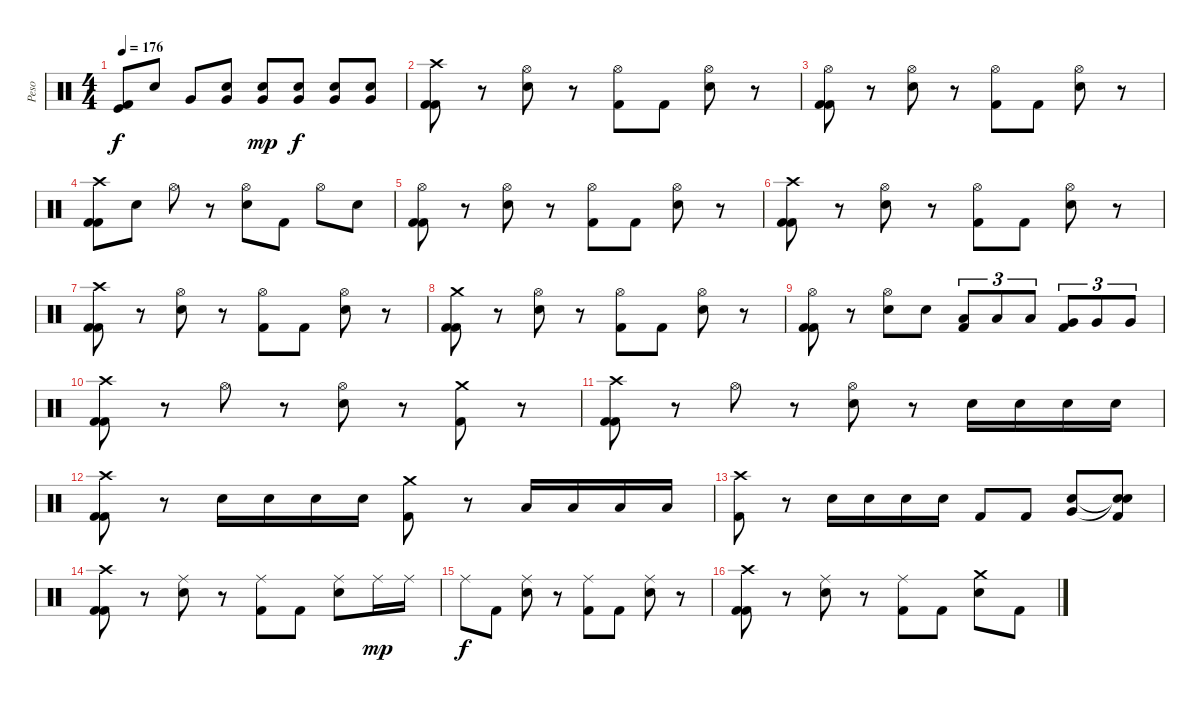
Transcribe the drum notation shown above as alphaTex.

\track ("Peso" "Peso") {instrument percussion}
\staff {score}
\articulation defaults
\ts (4 4)
\tempo 176
\clef neutral
\ks c
("Kick (hit)" "Kick (hit) 2").8{dy f} "Electric Snare (hit)".8 "Very Low Tom (hit)".8 ("Very Low Tom (hit)" "Electric Snare (hit)").8 ("Very Low Tom (hit)" "Electric Snare (hit)").8{dy mp} ("Very Low Tom (hit)" "Electric Snare (hit)").8{dy f} ("Very Low Tom (hit)" "Electric Snare (hit)").8 ("Very Low Tom (hit)" "Electric Snare (hit)").8 |
("Crash high (hit)" "Kick (hit) 2" "Kick (hit) 2").8 r.8 ("Hi-Hat (open)" "Electric Snare (hit)").8 r.8 ("Hi-Hat (open)" "Kick (hit) 2").8 "Kick (hit) 2".8 ("Hi-Hat (open)" "Electric Snare (hit)").8 r.8 |
("Hi-Hat (open)" "Kick (hit) 2" "Kick (hit) 2").8 r.8 ("Hi-Hat (open)" "Electric Snare (hit)").8 r.8 ("Hi-Hat (open)" "Kick (hit) 2").8 "Kick (hit) 2".8 ("Hi-Hat (open)" "Electric Snare (hit)").8 r.8 |
("Crash high (hit)" "Kick (hit) 2" "Kick (hit) 2").8 "Electric Snare (hit)".8 "Hi-Hat (open)".8 r.8 ("Hi-Hat (open)" "Electric Snare (hit)").8 "Kick (hit) 2".8 "Hi-Hat (open)".8 "Electric Snare (hit)".8 |
("Hi-Hat (open)" "Kick (hit) 2" "Kick (hit) 2").8 r.8 ("Hi-Hat (open)" "Electric Snare (hit)").8 r.8 ("Hi-Hat (open)" "Kick (hit) 2").8 "Kick (hit) 2".8 ("Hi-Hat (open)" "Electric Snare (hit)").8 r.8 |
("Crash high (hit)" "Kick (hit) 2" "Kick (hit) 2").8 r.8 ("Hi-Hat (open)" "Electric Snare (hit)").8 r.8 ("Hi-Hat (open)" "Kick (hit) 2").8 "Kick (hit) 2".8 ("Hi-Hat (open)" "Electric Snare (hit)").8 r.8 |
("Crash high (hit)" "Kick (hit) 2" "Kick (hit) 2").8 r.8 ("Hi-Hat (open)" "Electric Snare (hit)").8 r.8 ("Hi-Hat (open)" "Kick (hit) 2").8 "Kick (hit) 2".8 ("Hi-Hat (open)" "Electric Snare (hit)").8 r.8 |
("Crash medium (hit)" "Kick (hit) 2" "Kick (hit) 2").8 r.8 ("Hi-Hat (open)" "Electric Snare (hit)").8 r.8 ("Hi-Hat (open)" "Kick (hit) 2").8 "Kick (hit) 2".8 ("Hi-Hat (open)" "Electric Snare (hit)").8 r.8 |
("Hi-Hat (open)" "Kick (hit) 2" "Kick (hit) 2").8 r.8 ("Hi-Hat (open)" "Electric Snare (hit)").8 "Electric Snare (hit)".8 ("Low Tom (hit)" "Kick (hit) 2").8{tu (3 2)} "Low Tom (hit)".8{tu (3 2)} "Low Tom (hit)".8{tu (3 2)} ("Very Low Tom (hit)" "Kick (hit) 2").8{tu (3 2)} "Very Low Tom (hit)".8{tu (3 2)} "Very Low Tom (hit)".8{tu (3 2)} |
("Crash high (hit)" "Kick (hit) 2" "Kick (hit) 2").8 r.8 "Hi-Hat (open)".8 r.8 ("Hi-Hat (open)" "Electric Snare (hit)").8 r.8 ("Crash medium (hit)" "Kick (hit) 2").8 r.8 |
("Crash high (hit)" "Kick (hit) 2" "Kick (hit) 2").8 r.8 "Hi-Hat (open)".8 r.8 ("Hi-Hat (open)" "Electric Snare (hit)").8 r.8 "Electric Snare (hit)".16 "Electric Snare (hit)".16 "Electric Snare (hit)".16 "Electric Snare (hit)".16 |
("Crash high (hit)" "Kick (hit) 2" "Kick (hit) 2").8 r.8 "Electric Snare (hit)".16 "Electric Snare (hit)".16 "Electric Snare (hit)".16 "Electric Snare (hit)".16 ("Crash medium (hit)" "Kick (hit) 2").8 r.8 "Low Tom (hit)".16 "Low Tom (hit)".16 "Low Tom (hit)".16 "Low Tom (hit)".16 |
("Crash high (hit)" "Kick (hit) 2").8 r.8 "Electric Snare (hit)".16 "Electric Snare (hit)".16 "Electric Snare (hit)".16 "Electric Snare (hit)".16 "Kick (hit) 2".8 "Kick (hit) 2".8 ("Very Low Tom (hit)" "Electric Snare (hit)").8 ("Snare (hit)"{t} "Snare (hit)"{t} "Kick (hit) 2").8 |
("Crash high (hit)" "Kick (hit) 2" "Kick (hit) 2").8 r.8 ("Ride (middle)" "Electric Snare (hit)").8 r.8 ("Ride (middle)" "Kick (hit) 2").8 "Kick (hit) 2".8 ("Ride (middle)" "Electric Snare (hit)").8 "Ride (middle)".16{dy mp} "Ride (middle)".16 |
"Ride (middle)".8{dy f} "Kick (hit) 2".8 ("Ride (middle)" "Electric Snare (hit)").8 r.8 ("Ride (middle)" "Kick (hit) 2").8 "Kick (hit) 2".8 ("Ride (middle)" "Electric Snare (hit)").8 r.8 |
("Crash high (hit)" "Kick (hit) 2" "Kick (hit) 2").8 r.8 ("Ride (middle)" "Electric Snare (hit)").8 r.8 ("Ride (middle)" "Kick (hit) 2").8 "Kick (hit) 2".8 ("Crash medium (hit)" "Electric Snare (hit)").8 "Kick (hit) 2".8
